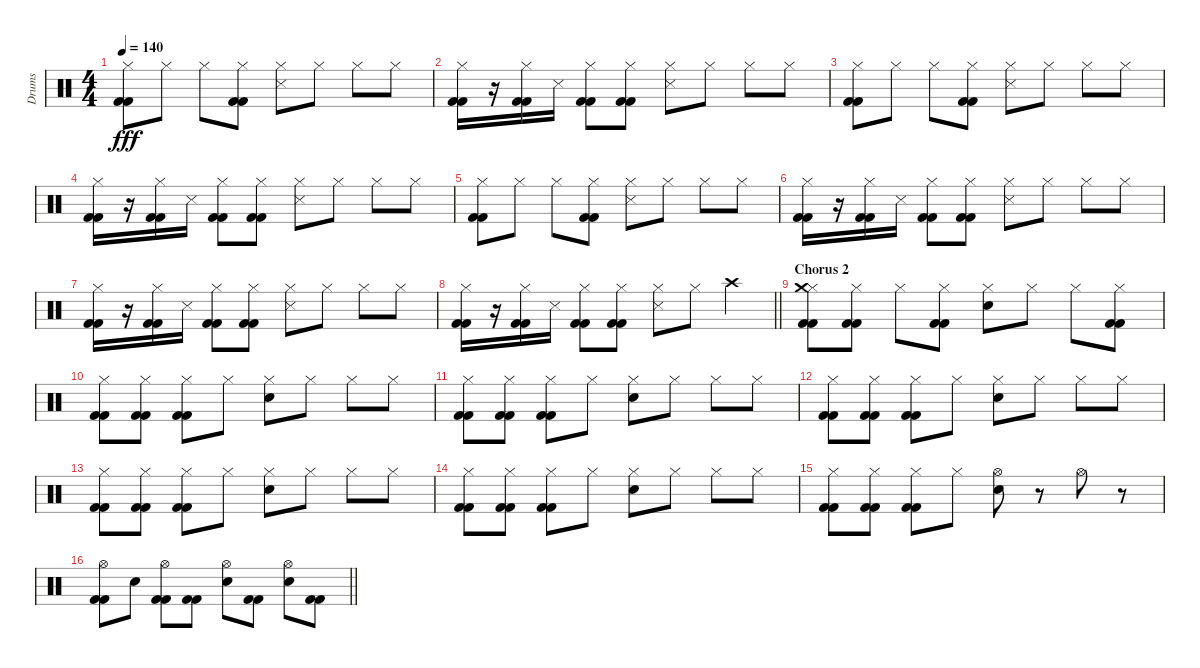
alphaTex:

\track ("Drums" "Drums") {instrument percussion}
\staff {score}
\articulation defaults
\ts (4 4)
\tempo 140
\clef neutral
\ks c
("Hi-Hat (closed)" "Kick (hit) 2" "Kick (hit) 2").8{dy fff} "Hi-Hat (closed)".8 "Hi-Hat (closed)".8 ("Hi-Hat (closed)" "Kick (hit) 2" "Kick (hit) 2").8 ("Hi-Hat (closed)" "Snare (side stick) 3").8 "Hi-Hat (closed)".8 "Hi-Hat (closed)".8 "Hi-Hat (closed)".8 |
("Kick (hit) 2" "Hi-Hat (closed)" "Kick (hit) 2").16 r.16 ("Kick (hit) 2" "Kick (hit) 2" "Hi-Hat (closed)").16 "Snare (side stick) 3".16 ("Kick (hit) 2" "Kick (hit) 2" "Hi-Hat (closed)").8 ("Kick (hit) 2" "Kick (hit) 2" "Hi-Hat (closed)").8 ("Snare (side stick) 3" "Hi-Hat (closed)").8 "Hi-Hat (closed)".8 "Hi-Hat (closed)".8 "Hi-Hat (closed)".8 |
("Hi-Hat (closed)" "Kick (hit) 2" "Kick (hit) 2").8 "Hi-Hat (closed)".8 "Hi-Hat (closed)".8 ("Hi-Hat (closed)" "Kick (hit) 2" "Kick (hit) 2").8 ("Hi-Hat (closed)" "Snare (side stick) 3").8 "Hi-Hat (closed)".8 "Hi-Hat (closed)".8 "Hi-Hat (closed)".8 |
("Kick (hit) 2" "Hi-Hat (closed)" "Kick (hit) 2").16 r.16 ("Kick (hit) 2" "Kick (hit) 2" "Hi-Hat (closed)").16 "Snare (side stick) 3".16 ("Kick (hit) 2" "Kick (hit) 2" "Hi-Hat (closed)").8 ("Kick (hit) 2" "Kick (hit) 2" "Hi-Hat (closed)").8 ("Snare (side stick) 3" "Hi-Hat (closed)").8 "Hi-Hat (closed)".8 "Hi-Hat (closed)".8 "Hi-Hat (closed)".8 |
("Hi-Hat (closed)" "Kick (hit) 2" "Kick (hit) 2").8 "Hi-Hat (closed)".8 "Hi-Hat (closed)".8 ("Hi-Hat (closed)" "Kick (hit) 2" "Kick (hit) 2").8 ("Hi-Hat (closed)" "Snare (side stick) 3").8 "Hi-Hat (closed)".8 "Hi-Hat (closed)".8 "Hi-Hat (closed)".8 |
("Kick (hit) 2" "Hi-Hat (closed)" "Kick (hit) 2").16 r.16 ("Kick (hit) 2" "Kick (hit) 2" "Hi-Hat (closed)").16 "Snare (side stick) 3".16 ("Kick (hit) 2" "Kick (hit) 2" "Hi-Hat (closed)").8 ("Kick (hit) 2" "Kick (hit) 2" "Hi-Hat (closed)").8 ("Snare (side stick) 3" "Hi-Hat (closed)").8 "Hi-Hat (closed)".8 "Hi-Hat (closed)".8 "Hi-Hat (closed)".8 |
("Kick (hit) 2" "Hi-Hat (closed)" "Kick (hit) 2").16 r.16 ("Kick (hit) 2" "Kick (hit) 2" "Hi-Hat (closed)").16 "Snare (side stick) 3".16 ("Kick (hit) 2" "Kick (hit) 2" "Hi-Hat (closed)").8 ("Kick (hit) 2" "Kick (hit) 2" "Hi-Hat (closed)").8 ("Snare (side stick) 3" "Hi-Hat (closed)").8 "Hi-Hat (closed)".8 "Hi-Hat (closed)".8 "Hi-Hat (closed)".8 |
\barLineRight lightlight
("Kick (hit) 2" "Hi-Hat (closed)" "Kick (hit) 2").16 r.16 ("Kick (hit) 2" "Kick (hit) 2" "Hi-Hat (closed)").16 "Snare (side stick) 3".16 ("Kick (hit) 2" "Kick (hit) 2" "Hi-Hat (closed)").8 ("Kick (hit) 2" "Kick (hit) 2" "Hi-Hat (closed)").8 ("Snare (side stick) 3" "Hi-Hat (closed)").8 "Hi-Hat (closed)".8 "Crash high (hit)".4 |
\section ("" "Chorus 2")
("Hi-Hat (closed)" "Kick (hit) 2" "Kick (hit) 2" "Crash medium (hit)").8 ("Hi-Hat (closed)" "Kick (hit) 2" "Kick (hit) 2").8 "Hi-Hat (closed)".8 ("Kick (hit) 2" "Hi-Hat (closed)" "Kick (hit) 2").8 ("Hi-Hat (closed)" "Snare (hit) 2").8 "Hi-Hat (closed)".8 "Hi-Hat (closed)".8 ("Kick (hit) 2" "Hi-Hat (closed)" "Kick (hit) 2").8 |
("Kick (hit) 2" "Hi-Hat (closed)" "Kick (hit) 2").8 ("Kick (hit) 2" "Hi-Hat (closed)" "Kick (hit) 2").8 ("Kick (hit) 2" "Hi-Hat (closed)" "Kick (hit) 2").8 "Hi-Hat (closed)".8 ("Snare (hit) 2" "Hi-Hat (closed)").8 "Hi-Hat (closed)".8 "Hi-Hat (closed)".8 "Hi-Hat (closed)".8 |
("Kick (hit) 2" "Hi-Hat (closed)" "Kick (hit) 2").8 ("Kick (hit) 2" "Hi-Hat (closed)" "Kick (hit) 2").8 ("Kick (hit) 2" "Hi-Hat (closed)" "Kick (hit) 2").8 "Hi-Hat (closed)".8 ("Snare (hit) 2" "Hi-Hat (closed)").8 "Hi-Hat (closed)".8 "Hi-Hat (closed)".8 "Hi-Hat (closed)".8 |
("Kick (hit) 2" "Hi-Hat (closed)" "Kick (hit) 2").8 ("Kick (hit) 2" "Hi-Hat (closed)" "Kick (hit) 2").8 ("Kick (hit) 2" "Hi-Hat (closed)" "Kick (hit) 2").8 "Hi-Hat (closed)".8 ("Snare (hit) 2" "Hi-Hat (closed)").8 "Hi-Hat (closed)".8 "Hi-Hat (closed)".8 "Hi-Hat (closed)".8 |
("Kick (hit) 2" "Hi-Hat (closed)" "Kick (hit) 2").8 ("Kick (hit) 2" "Hi-Hat (closed)" "Kick (hit) 2").8 ("Kick (hit) 2" "Hi-Hat (closed)" "Kick (hit) 2").8 "Hi-Hat (closed)".8 ("Snare (hit) 2" "Hi-Hat (closed)").8 "Hi-Hat (closed)".8 "Hi-Hat (closed)".8 "Hi-Hat (closed)".8 |
("Kick (hit) 2" "Hi-Hat (closed)" "Kick (hit) 2").8 ("Kick (hit) 2" "Hi-Hat (closed)" "Kick (hit) 2").8 ("Kick (hit) 2" "Hi-Hat (closed)" "Kick (hit) 2").8 "Hi-Hat (closed)".8 ("Snare (hit) 2" "Hi-Hat (closed)").8 "Hi-Hat (closed)".8 "Hi-Hat (closed)".8 "Hi-Hat (closed)".8 |
("Kick (hit) 2" "Hi-Hat (closed)" "Kick (hit) 2").8 ("Kick (hit) 2" "Hi-Hat (closed)" "Kick (hit) 2").8 ("Kick (hit) 2" "Hi-Hat (closed)" "Kick (hit) 2").8 "Hi-Hat (closed)".8 ("Snare (hit) 2" "Hi-Hat (open)").8 r.8 "Hi-Hat (open)".8 r.8 |
\barLineRight lightlight
("Kick (hit) 2" "Hi-Hat (open)" "Kick (hit) 2").8 "Snare (hit) 2".8 ("Kick (hit) 2" "Kick (hit) 2" "Hi-Hat (open)").8 ("Kick (hit) 2" "Kick (hit) 2").8 ("Snare (hit) 2" "Hi-Hat (open)").8 ("Kick (hit) 2" "Kick (hit) 2").8 ("Snare (hit) 2" "Hi-Hat (open)").8 ("Kick (hit) 2" "Kick (hit) 2").8
